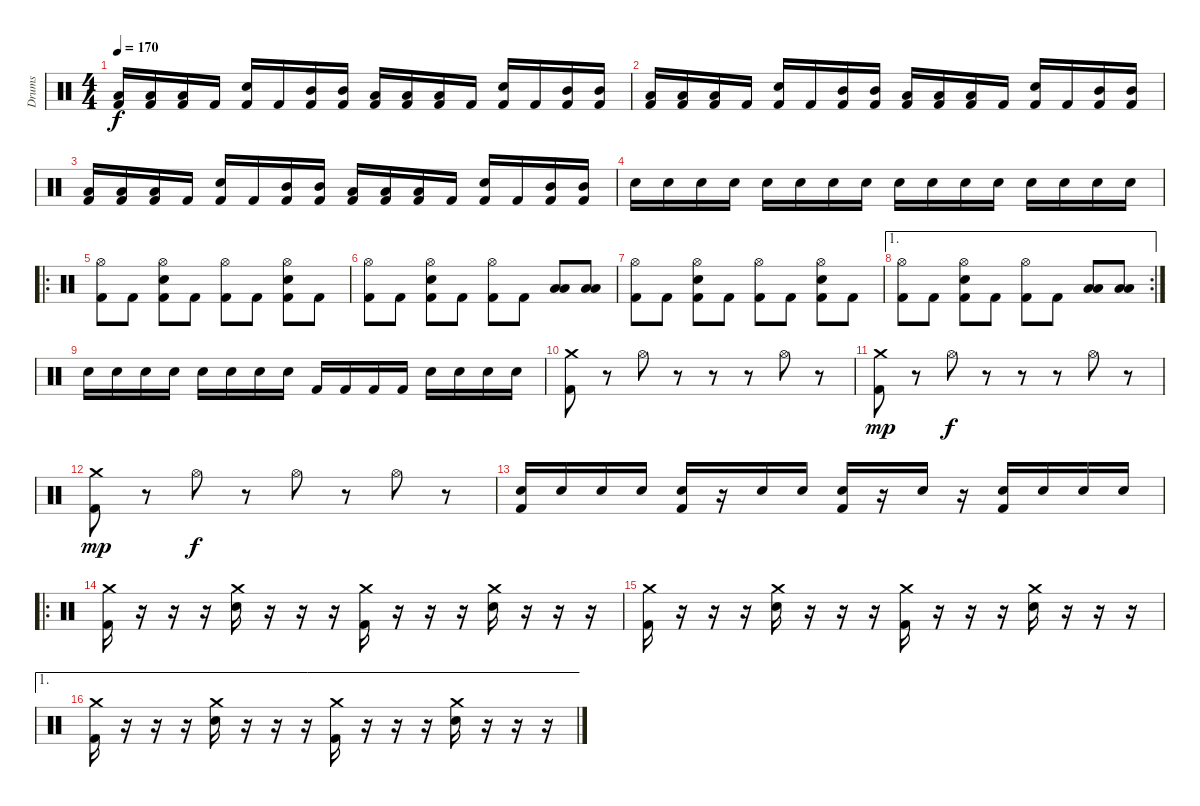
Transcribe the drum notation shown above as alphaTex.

\track ("Drums" "Drums") {instrument percussion}
\staff {score}
\articulation defaults
\ts (4 4)
\tempo 170
\clef neutral
\ks c
("Low Tom (hit)" "Kick (hit) 2").16{dy f} ("Low Tom (hit)" "Kick (hit) 2").16 ("Low Tom (hit)" "Kick (hit) 2").16 "Kick (hit) 2".16 ("Electric Snare (hit)" "Kick (hit) 2").16 "Kick (hit) 2".16 ("Mid Tom (hit)" "Kick (hit) 2").16 ("Mid Tom (hit)" "Kick (hit) 2").16 ("Low Tom (hit)" "Kick (hit) 2").16 ("Low Tom (hit)" "Kick (hit) 2").16 ("Low Tom (hit)" "Kick (hit) 2").16 "Kick (hit) 2".16 ("Electric Snare (hit)" "Kick (hit) 2").16 "Kick (hit) 2".16 ("Mid Tom (hit)" "Kick (hit) 2").16 ("Mid Tom (hit)" "Kick (hit) 2").16 |
("Low Tom (hit)" "Kick (hit) 2").16 ("Low Tom (hit)" "Kick (hit) 2").16 ("Low Tom (hit)" "Kick (hit) 2").16 "Kick (hit) 2".16 ("Electric Snare (hit)" "Kick (hit) 2").16 "Kick (hit) 2".16 ("Mid Tom (hit)" "Kick (hit) 2").16 ("Mid Tom (hit)" "Kick (hit) 2").16 ("Low Tom (hit)" "Kick (hit) 2").16 ("Low Tom (hit)" "Kick (hit) 2").16 ("Low Tom (hit)" "Kick (hit) 2").16 "Kick (hit) 2".16 ("Electric Snare (hit)" "Kick (hit) 2").16 "Kick (hit) 2".16 ("Mid Tom (hit)" "Kick (hit) 2").16 ("Mid Tom (hit)" "Kick (hit) 2").16 |
("Low Tom (hit)" "Kick (hit) 2").16 ("Low Tom (hit)" "Kick (hit) 2").16 ("Low Tom (hit)" "Kick (hit) 2").16 "Kick (hit) 2".16 ("Electric Snare (hit)" "Kick (hit) 2").16 "Kick (hit) 2".16 ("Mid Tom (hit)" "Kick (hit) 2").16 ("Mid Tom (hit)" "Kick (hit) 2").16 ("Low Tom (hit)" "Kick (hit) 2").16 ("Low Tom (hit)" "Kick (hit) 2").16 ("Low Tom (hit)" "Kick (hit) 2").16 "Kick (hit) 2".16 ("Electric Snare (hit)" "Kick (hit) 2").16 "Kick (hit) 2".16 ("Mid Tom (hit)" "Kick (hit) 2").16 ("Mid Tom (hit)" "Kick (hit) 2").16 |
"Electric Snare (hit)".16 "Electric Snare (hit)".16 "Electric Snare (hit)".16 "Electric Snare (hit)".16 "Electric Snare (hit)".16 "Electric Snare (hit)".16 "Electric Snare (hit)".16 "Electric Snare (hit)".16 "Electric Snare (hit)".16 "Electric Snare (hit)".16 "Electric Snare (hit)".16 "Electric Snare (hit)".16 "Electric Snare (hit)".16 "Electric Snare (hit)".16 "Electric Snare (hit)".16 "Electric Snare (hit)".16 |
\ro
("Hi-Hat (open)" "Kick (hit) 2").8 "Kick (hit) 2".8 ("Hi-Hat (open)" "Electric Snare (hit)" "Kick (hit) 2").8 "Kick (hit) 2".8 ("Hi-Hat (open)" "Kick (hit) 2").8 "Kick (hit) 2".8 ("Hi-Hat (open)" "Electric Snare (hit)" "Kick (hit) 2").8 "Kick (hit) 2".8 |
("Hi-Hat (open)" "Kick (hit) 2").8 "Kick (hit) 2".8 ("Hi-Hat (open)" "Electric Snare (hit)" "Kick (hit) 2").8 "Kick (hit) 2".8 ("Hi-Hat (open)" "Kick (hit) 2").8 "Kick (hit) 2".8 ("Low Tom (hit)" "Low Tom (hit)").8 ("Low Tom (hit)" "Low Tom (hit)").8 |
("Hi-Hat (open)" "Kick (hit) 2").8 "Kick (hit) 2".8 ("Hi-Hat (open)" "Electric Snare (hit)" "Kick (hit) 2").8 "Kick (hit) 2".8 ("Hi-Hat (open)" "Kick (hit) 2").8 "Kick (hit) 2".8 ("Hi-Hat (open)" "Electric Snare (hit)" "Kick (hit) 2").8 "Kick (hit) 2".8 |
\ae 1
\rc 2
("Hi-Hat (open)" "Kick (hit) 2").8 "Kick (hit) 2".8 ("Hi-Hat (open)" "Electric Snare (hit)" "Kick (hit) 2").8 "Kick (hit) 2".8 ("Hi-Hat (open)" "Kick (hit) 2").8 "Kick (hit) 2".8 ("Low Tom (hit)" "Low Tom (hit)").8 ("Low Tom (hit)" "Low Tom (hit)").8 |
"Electric Snare (hit)".16 "Electric Snare (hit)".16 "Electric Snare (hit)".16 "Electric Snare (hit)".16 "Electric Snare (hit)".16 "Electric Snare (hit)".16 "Electric Snare (hit)".16 "Electric Snare (hit)".16 "Kick (hit) 2".16 "Kick (hit) 2".16 "Kick (hit) 2".16 "Kick (hit) 2".16 "Electric Snare (hit)".16 "Electric Snare (hit)".16 "Electric Snare (hit)".16 "Electric Snare (hit)".16 |
("Crash medium (hit)" "Kick (hit) 2").8 r.8 "Hi-Hat (open)".8 r.8 r.8 r.8 "Hi-Hat (open)".8 r.8 |
("Crash medium (hit)" "Kick (hit) 2").8{dy mp} r.8 "Hi-Hat (open)".8{dy f} r.8 r.8 r.8 "Hi-Hat (open)".8 r.8 |
("Crash medium (hit)" "Kick (hit) 2").8{dy mp} r.8 "Hi-Hat (open)".8{dy f} r.8 "Hi-Hat (open)".8 r.8 "Hi-Hat (open)".8 r.8 |
("Electric Snare (hit)" "Kick (hit) 2").16 "Electric Snare (hit)".16 "Electric Snare (hit)".16 "Electric Snare (hit)".16 ("Electric Snare (hit)" "Kick (hit) 2").16 r.16 "Electric Snare (hit)".16 "Electric Snare (hit)".16 ("Electric Snare (hit)" "Kick (hit) 2").16 r.16 "Electric Snare (hit)".16 r.16 ("Electric Snare (hit)" "Kick (hit) 2").16 "Electric Snare (hit)".16 "Electric Snare (hit)".16 "Electric Snare (hit)".16 |
\ro
("Crash medium (hit)" "Kick (hit) 2").16 r.16 r.16 r.16 ("Crash medium (hit)" "Electric Snare (hit)").16 r.16 r.16 r.16 ("Crash medium (hit)" "Kick (hit) 2").16 r.16 r.16 r.16 ("Crash medium (hit)" "Electric Snare (hit)").16 r.16 r.16 r.16 |
("Crash medium (hit)" "Kick (hit) 2").16 r.16 r.16 r.16 ("Crash medium (hit)" "Electric Snare (hit)").16 r.16 r.16 r.16 ("Crash medium (hit)" "Kick (hit) 2").16 r.16 r.16 r.16 ("Crash medium (hit)" "Electric Snare (hit)").16 r.16 r.16 r.16 |
\ae 1
("Crash medium (hit)" "Kick (hit) 2").16 r.16 r.16 r.16 ("Crash medium (hit)" "Electric Snare (hit)").16 r.16 r.16 r.16 ("Crash medium (hit)" "Kick (hit) 2").16 r.16 r.16 r.16 ("Crash medium (hit)" "Electric Snare (hit)").16 r.16 r.16 r.16
